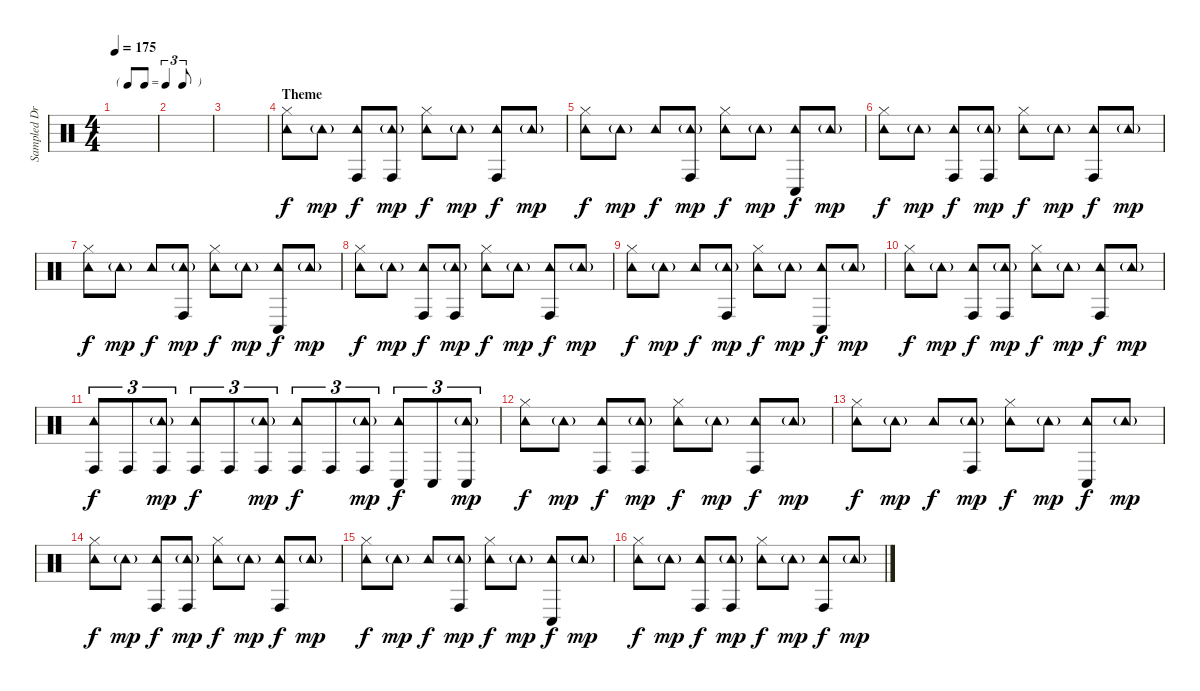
\track ("Sampled Drums" "Sampled Dr") {instrument percussion}
\staff {score}
\articulation defaults
\ts (4 4)
\tf triplet8th
\tempo 175
\clef neutral
\ks c
|
|
|
\section ("" "Theme")
("Tambourine (hit)" "Hi-Hat (closed)").8 "Tambourine (hit)"{g}.8{dy mp} ("Tambourine (hit)" "Conga high (hit)").8{dy f} ("Tambourine (hit)"{g} "Conga high (hit)").8{dy mp} ("Tambourine (hit)" "Hi-Hat (closed)").8{dy f} "Tambourine (hit)"{g}.8{dy mp} ("Tambourine (hit)" "Conga high (hit)").8{dy f} "Tambourine (hit)"{g}.8{dy mp} |
("Tambourine (hit)" "Hi-Hat (closed)").8{dy f} "Tambourine (hit)"{g}.8{dy mp} "Tambourine (hit)".8{dy f} ("Tambourine (hit)"{g} "Conga high (hit)").8{dy mp} ("Tambourine (hit)" "Hi-Hat (closed)").8{dy f} "Tambourine (hit)"{g}.8{dy mp} ("Tambourine (hit)" "Conga low (hit)").8{dy f} "Tambourine (hit)"{g}.8{dy mp} |
("Tambourine (hit)" "Hi-Hat (closed)").8{dy f} "Tambourine (hit)"{g}.8{dy mp} ("Tambourine (hit)" "Conga high (hit)").8{dy f} ("Tambourine (hit)"{g} "Conga high (hit)").8{dy mp} ("Tambourine (hit)" "Hi-Hat (closed)").8{dy f} "Tambourine (hit)"{g}.8{dy mp} ("Tambourine (hit)" "Conga high (hit)").8{dy f} "Tambourine (hit)"{g}.8{dy mp} |
("Tambourine (hit)" "Hi-Hat (closed)").8{dy f} "Tambourine (hit)"{g}.8{dy mp} "Tambourine (hit)".8{dy f} ("Tambourine (hit)"{g} "Conga high (hit)").8{dy mp} ("Tambourine (hit)" "Hi-Hat (closed)").8{dy f} "Tambourine (hit)"{g}.8{dy mp} ("Tambourine (hit)" "Conga low (hit)").8{dy f} "Tambourine (hit)"{g}.8{dy mp} |
("Tambourine (hit)" "Hi-Hat (closed)").8{dy f} "Tambourine (hit)"{g}.8{dy mp} ("Tambourine (hit)" "Conga high (hit)").8{dy f} ("Tambourine (hit)"{g} "Conga high (hit)").8{dy mp} ("Tambourine (hit)" "Hi-Hat (closed)").8{dy f} "Tambourine (hit)"{g}.8{dy mp} ("Tambourine (hit)" "Conga high (hit)").8{dy f} "Tambourine (hit)"{g}.8{dy mp} |
("Tambourine (hit)" "Hi-Hat (closed)").8{dy f} "Tambourine (hit)"{g}.8{dy mp} "Tambourine (hit)".8{dy f} ("Tambourine (hit)"{g} "Conga high (hit)").8{dy mp} ("Tambourine (hit)" "Hi-Hat (closed)").8{dy f} "Tambourine (hit)"{g}.8{dy mp} ("Tambourine (hit)" "Conga low (hit)").8{dy f} "Tambourine (hit)"{g}.8{dy mp} |
("Tambourine (hit)" "Hi-Hat (closed)").8{dy f} "Tambourine (hit)"{g}.8{dy mp} ("Tambourine (hit)" "Conga high (hit)").8{dy f} ("Tambourine (hit)"{g} "Conga high (hit)").8{dy mp} ("Tambourine (hit)" "Hi-Hat (closed)").8{dy f} "Tambourine (hit)"{g}.8{dy mp} ("Tambourine (hit)" "Conga high (hit)").8{dy f} "Tambourine (hit)"{g}.8{dy mp} |
("Tambourine (hit)" "Conga high (hit)").8{tu (3 2) dy f} "Conga high (hit)".8{tu (3 2)} ("Tambourine (hit)"{g} "Conga high (hit)").8{tu (3 2) dy mp} ("Tambourine (hit)" "Conga high (hit)").8{tu (3 2) dy f} "Conga high (hit)".8{tu (3 2)} ("Tambourine (hit)"{g} "Conga high (hit)").8{tu (3 2) dy mp} ("Tambourine (hit)" "Conga high (hit)").8{tu (3 2) dy f} "Conga high (hit)".8{tu (3 2)} ("Tambourine (hit)"{g} "Conga high (hit)").8{tu (3 2) dy mp} ("Tambourine (hit)" "Conga low (hit)").8{tu (3 2) dy f} "Conga low (hit)".8{tu (3 2)} ("Tambourine (hit)"{g} "Conga low (hit)").8{tu (3 2) dy mp} |
("Tambourine (hit)" "Hi-Hat (closed)").8{dy f} "Tambourine (hit)"{g}.8{dy mp} ("Tambourine (hit)" "Conga high (hit)").8{dy f} ("Tambourine (hit)"{g} "Conga high (hit)").8{dy mp} ("Tambourine (hit)" "Hi-Hat (closed)").8{dy f} "Tambourine (hit)"{g}.8{dy mp} ("Tambourine (hit)" "Conga high (hit)").8{dy f} "Tambourine (hit)"{g}.8{dy mp} |
("Tambourine (hit)" "Hi-Hat (closed)").8{dy f} "Tambourine (hit)"{g}.8{dy mp} "Tambourine (hit)".8{dy f} ("Tambourine (hit)"{g} "Conga high (hit)").8{dy mp} ("Tambourine (hit)" "Hi-Hat (closed)").8{dy f} "Tambourine (hit)"{g}.8{dy mp} ("Tambourine (hit)" "Conga low (hit)").8{dy f} "Tambourine (hit)"{g}.8{dy mp} |
("Tambourine (hit)" "Hi-Hat (closed)").8{dy f} "Tambourine (hit)"{g}.8{dy mp} ("Tambourine (hit)" "Conga high (hit)").8{dy f} ("Tambourine (hit)"{g} "Conga high (hit)").8{dy mp} ("Tambourine (hit)" "Hi-Hat (closed)").8{dy f} "Tambourine (hit)"{g}.8{dy mp} ("Tambourine (hit)" "Conga high (hit)").8{dy f} "Tambourine (hit)"{g}.8{dy mp} |
("Tambourine (hit)" "Hi-Hat (closed)").8{dy f} "Tambourine (hit)"{g}.8{dy mp} "Tambourine (hit)".8{dy f} ("Tambourine (hit)"{g} "Conga high (hit)").8{dy mp} ("Tambourine (hit)" "Hi-Hat (closed)").8{dy f} "Tambourine (hit)"{g}.8{dy mp} ("Tambourine (hit)" "Conga low (hit)").8{dy f} "Tambourine (hit)"{g}.8{dy mp} |
("Tambourine (hit)" "Hi-Hat (closed)").8{dy f} "Tambourine (hit)"{g}.8{dy mp} ("Tambourine (hit)" "Conga high (hit)").8{dy f} ("Tambourine (hit)"{g} "Conga high (hit)").8{dy mp} ("Tambourine (hit)" "Hi-Hat (closed)").8{dy f} "Tambourine (hit)"{g}.8{dy mp} ("Tambourine (hit)" "Conga high (hit)").8{dy f} "Tambourine (hit)"{g}.8{dy mp}
